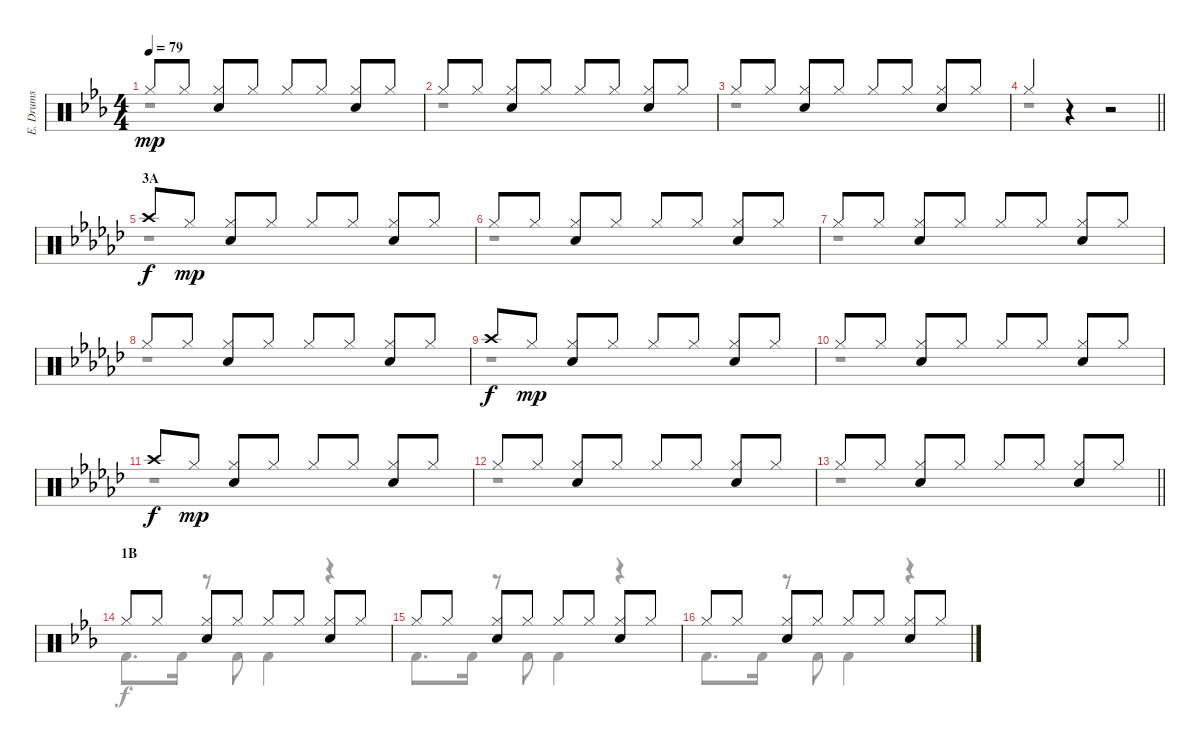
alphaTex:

\track ("E. Drums" "E. Drums") {instrument percussion}
\staff {score}
\articulation defaults
\voice
\ts (4 4)
\tempo 79
\clef neutral
\ks eb "Hi-Hat (closed)".8{dy mp} "Hi-Hat (closed)".8
("Hi-Hat (closed)" "Electric Snare (hit)").8 "Hi-Hat (closed)".8 "Hi-Hat (closed)".8 "Hi-Hat (closed)".8 ("Hi-Hat (closed)" "Electric Snare (hit)").8 "Hi-Hat (closed)".8 |
"Hi-Hat (closed)".8 "Hi-Hat (closed)".8 ("Hi-Hat (closed)" "Electric Snare (hit)").8 "Hi-Hat (closed)".8 "Hi-Hat (closed)".8 "Hi-Hat (closed)".8 ("Hi-Hat (closed)" "Electric Snare (hit)").8 "Hi-Hat (closed)".8 |
"Hi-Hat (closed)".8 "Hi-Hat (closed)".8 ("Hi-Hat (closed)" "Electric Snare (hit)").8 "Hi-Hat (closed)".8 "Hi-Hat (closed)".8 "Hi-Hat (closed)".8 ("Hi-Hat (closed)" "Electric Snare (hit)").8 "Hi-Hat (closed)".8 |
\barLineRight lightlight "Hi-Hat (closed)".4
r.4 r.2 |
\section ("" "3A")
\ks gb "Crash high (hit)".8{dy f} "Hi-Hat (closed)".8{dy mp}
("Hi-Hat (closed)" "Electric Snare (hit)").8 "Hi-Hat (closed)".8 "Hi-Hat (closed)".8 "Hi-Hat (closed)".8 ("Hi-Hat (closed)" "Electric Snare (hit)").8 "Hi-Hat (closed)".8 |
"Hi-Hat (closed)".8 "Hi-Hat (closed)".8 ("Hi-Hat (closed)" "Electric Snare (hit)").8 "Hi-Hat (closed)".8 "Hi-Hat (closed)".8 "Hi-Hat (closed)".8 ("Hi-Hat (closed)" "Electric Snare (hit)").8 "Hi-Hat (closed)".8 |
"Hi-Hat (closed)".8 "Hi-Hat (closed)".8 ("Hi-Hat (closed)" "Electric Snare (hit)").8 "Hi-Hat (closed)".8 "Hi-Hat (closed)".8 "Hi-Hat (closed)".8 ("Hi-Hat (closed)" "Electric Snare (hit)").8 "Hi-Hat (closed)".8 |
"Hi-Hat (closed)".8 "Hi-Hat (closed)".8 ("Hi-Hat (closed)" "Electric Snare (hit)").8 "Hi-Hat (closed)".8 "Hi-Hat (closed)".8 "Hi-Hat (closed)".8 ("Hi-Hat (closed)" "Electric Snare (hit)").8 "Hi-Hat (closed)".8 |
"Crash high (hit)".8{dy f} "Hi-Hat (closed)".8{dy mp} ("Hi-Hat (closed)" "Electric Snare (hit)").8 "Hi-Hat (closed)".8 "Hi-Hat (closed)".8 "Hi-Hat (closed)".8 ("Hi-Hat (closed)" "Electric Snare (hit)").8 "Hi-Hat (closed)".8 |
"Hi-Hat (closed)".8 "Hi-Hat (closed)".8 ("Hi-Hat (closed)" "Electric Snare (hit)").8 "Hi-Hat (closed)".8 "Hi-Hat (closed)".8 "Hi-Hat (closed)".8 ("Hi-Hat (closed)" "Electric Snare (hit)").8 "Hi-Hat (closed)".8 |
"Crash high (hit)".8{dy f} "Hi-Hat (closed)".8{dy mp} ("Hi-Hat (closed)" "Electric Snare (hit)").8 "Hi-Hat (closed)".8 "Hi-Hat (closed)".8 "Hi-Hat (closed)".8 ("Hi-Hat (closed)" "Electric Snare (hit)").8 "Hi-Hat (closed)".8 |
"Hi-Hat (closed)".8 "Hi-Hat (closed)".8 ("Hi-Hat (closed)" "Electric Snare (hit)").8 "Hi-Hat (closed)".8 "Hi-Hat (closed)".8 "Hi-Hat (closed)".8 ("Hi-Hat (closed)" "Electric Snare (hit)").8 "Hi-Hat (closed)".8 |
\barLineRight lightlight "Hi-Hat (closed)".8 "Hi-Hat (closed)".8
("Hi-Hat (closed)" "Electric Snare (hit)").8 "Hi-Hat (closed)".8 "Hi-Hat (closed)".8 "Hi-Hat (closed)".8 ("Hi-Hat (closed)" "Electric Snare (hit)").8 "Hi-Hat (closed)".8 |
\section ("" "1B")
\ks eb "Hi-Hat (closed)".8 "Hi-Hat (closed)".8
("Hi-Hat (closed)" "Electric Snare (hit)").8 "Hi-Hat (closed)".8 "Hi-Hat (closed)".8 "Hi-Hat (closed)".8 ("Hi-Hat (closed)" "Electric Snare (hit)").8 "Hi-Hat (closed)".8 |
"Hi-Hat (closed)".8 "Hi-Hat (closed)".8 ("Hi-Hat (closed)" "Electric Snare (hit)").8 "Hi-Hat (closed)".8 "Hi-Hat (closed)".8 "Hi-Hat (closed)".8 ("Hi-Hat (closed)" "Electric Snare (hit)").8 "Hi-Hat (closed)".8 |
"Hi-Hat (closed)".8 "Hi-Hat (closed)".8 ("Hi-Hat (closed)" "Electric Snare (hit)").8 "Hi-Hat (closed)".8 "Hi-Hat (closed)".8 "Hi-Hat (closed)".8 ("Hi-Hat (closed)" "Electric Snare (hit)").8 "Hi-Hat (closed)".8
\voice
\clef neutral
\ottava regular
\simile none
\ks eb
r.1{dy f} |
r.1 |
r.1 |
\barLineRight lightlight
r.1 |
\ks gb
r.1 |
r.1 |
r.1 |
r.1 |
r.1 |
r.1 |
r.1 |
r.1 |
\barLineRight lightlight
r.1 |
\ks eb "Kick (hit) 2".8{d} "Kick (hit) 2".16
r.8 "Kick (hit) 2".8 "Kick (hit) 2".4 r.4 |
"Kick (hit) 2".8{d} "Kick (hit) 2".16 r.8 "Kick (hit) 2".8 "Kick (hit) 2".4 r.4 |
"Kick (hit) 2".8{d} "Kick (hit) 2".16 r.8 "Kick (hit) 2".8 "Kick (hit) 2".4 r.4
